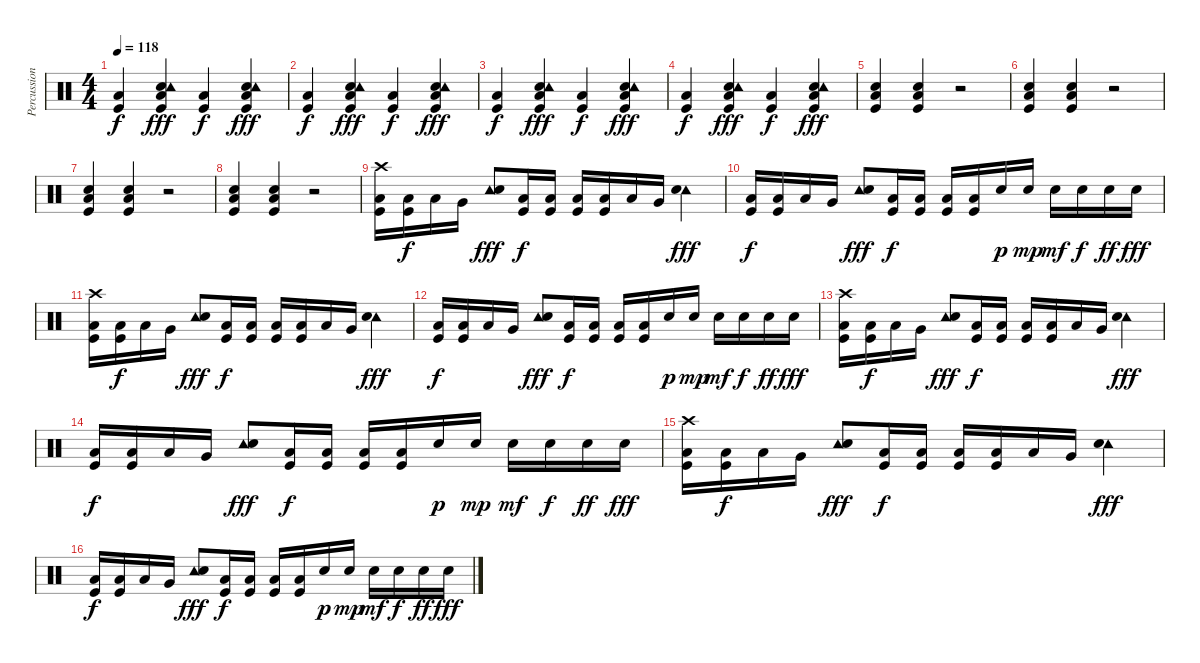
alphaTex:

\track ("Percussion" "Percussion") {instrument percussion}
\staff {score}
\articulation defaults
\ts (4 4)
\tempo 118
\clef neutral
\ks c
("Kick (hit)" "Low Floor Tom (hit)").4{dy f} ("Snare (hit) 2" "Tambourine (hit)" "Kick (hit)" "Low Floor Tom (hit)").4{dy fff} ("Kick (hit)" "Low Floor Tom (hit)").4{dy f} ("Snare (hit) 2" "Tambourine (hit)" "Kick (hit)" "Low Floor Tom (hit)").4{dy fff} |
("Kick (hit)" "Low Floor Tom (hit)").4{dy f} ("Snare (hit) 2" "Tambourine (hit)" "Kick (hit)" "Low Floor Tom (hit)").4{dy fff} ("Kick (hit)" "Low Floor Tom (hit)").4{dy f} ("Snare (hit) 2" "Tambourine (hit)" "Kick (hit)" "Low Floor Tom (hit)").4{dy fff} |
("Kick (hit)" "Low Floor Tom (hit)").4{dy f} ("Snare (hit) 2" "Tambourine (hit)" "Kick (hit)" "Low Floor Tom (hit)").4{dy fff} ("Kick (hit)" "Low Floor Tom (hit)").4{dy f} ("Snare (hit) 2" "Tambourine (hit)" "Kick (hit)" "Low Floor Tom (hit)").4{dy fff} |
("Kick (hit)" "Low Floor Tom (hit)").4{dy f} ("Snare (hit) 2" "Tambourine (hit)" "Kick (hit)" "Low Floor Tom (hit)").4{dy fff} ("Kick (hit)" "Low Floor Tom (hit)").4{dy f} ("Snare (hit) 2" "Tambourine (hit)" "Kick (hit)" "Low Floor Tom (hit)").4{dy fff} |
("Low Floor Tom (hit)" "Kick (hit)" "Snare (hit) 2").4 ("Low Floor Tom (hit)" "Kick (hit)" "Snare (hit) 2").4 r.2 |
("Low Floor Tom (hit)" "Kick (hit)" "Snare (hit) 2").4 ("Low Floor Tom (hit)" "Kick (hit)" "Snare (hit) 2").4 r.2 |
("Low Floor Tom (hit)" "Kick (hit)" "Snare (hit) 2").4 ("Low Floor Tom (hit)" "Kick (hit)" "Snare (hit) 2").4 r.2 |
("Low Floor Tom (hit)" "Kick (hit)" "Snare (hit) 2").4 ("Low Floor Tom (hit)" "Kick (hit)" "Snare (hit) 2").4 r.2 |
("Crash high (hit)" "Low Floor Tom (hit)" "Kick (hit)").16 ("Low Floor Tom (hit)" "Kick (hit)").16{dy f} "Low Tom (hit)".16 "Very Low Tom (hit)".16 ("Tambourine (hit)" "Snare (hit) 2").8{dy fff} ("Low Floor Tom (hit)" "Kick (hit)").16{dy f} ("Low Floor Tom (hit)" "Kick (hit)").16 ("Low Floor Tom (hit)" "Kick (hit)").16 ("Low Floor Tom (hit)" "Kick (hit)").16 "Low Tom (hit)".16 "Very Low Tom (hit)".16 ("Tambourine (hit)" "Snare (hit) 2").4{dy fff} |
("Low Floor Tom (hit)" "Kick (hit)").16{dy f} ("Low Floor Tom (hit)" "Kick (hit)").16 "Low Tom (hit)".16 "Very Low Tom (hit)".16 ("Tambourine (hit)" "Snare (hit) 2").8{dy fff} ("Low Floor Tom (hit)" "Kick (hit)").16{dy f} ("Low Floor Tom (hit)" "Kick (hit)").16 ("Low Floor Tom (hit)" "Kick (hit)").16 ("Low Floor Tom (hit)" "Kick (hit)").16 "Snare (hit) 2".16{dy p} "Snare (hit) 2".16{dy mp} "Snare (hit) 2".16{dy mf} "Snare (hit) 2".16{dy f} "Snare (hit) 2".16{dy ff} "Snare (hit) 2".16{dy fff} |
("Crash high (hit)" "Low Floor Tom (hit)" "Kick (hit)").16 ("Low Floor Tom (hit)" "Kick (hit)").16{dy f} "Low Tom (hit)".16 "Very Low Tom (hit)".16 ("Tambourine (hit)" "Snare (hit) 2").8{dy fff} ("Low Floor Tom (hit)" "Kick (hit)").16{dy f} ("Low Floor Tom (hit)" "Kick (hit)").16 ("Low Floor Tom (hit)" "Kick (hit)").16 ("Low Floor Tom (hit)" "Kick (hit)").16 "Low Tom (hit)".16 "Very Low Tom (hit)".16 ("Tambourine (hit)" "Snare (hit) 2").4{dy fff} |
("Low Floor Tom (hit)" "Kick (hit)").16{dy f} ("Low Floor Tom (hit)" "Kick (hit)").16 "Low Tom (hit)".16 "Very Low Tom (hit)".16 ("Tambourine (hit)" "Snare (hit) 2").8{dy fff} ("Low Floor Tom (hit)" "Kick (hit)").16{dy f} ("Low Floor Tom (hit)" "Kick (hit)").16 ("Low Floor Tom (hit)" "Kick (hit)").16 ("Low Floor Tom (hit)" "Kick (hit)").16 "Snare (hit) 2".16{dy p} "Snare (hit) 2".16{dy mp} "Snare (hit) 2".16{dy mf} "Snare (hit) 2".16{dy f} "Snare (hit) 2".16{dy ff} "Snare (hit) 2".16{dy fff} |
("Crash high (hit)" "Low Floor Tom (hit)" "Kick (hit)").16 ("Low Floor Tom (hit)" "Kick (hit)").16{dy f} "Low Tom (hit)".16 "Very Low Tom (hit)".16 ("Tambourine (hit)" "Snare (hit) 2").8{dy fff} ("Low Floor Tom (hit)" "Kick (hit)").16{dy f} ("Low Floor Tom (hit)" "Kick (hit)").16 ("Low Floor Tom (hit)" "Kick (hit)").16 ("Low Floor Tom (hit)" "Kick (hit)").16 "Low Tom (hit)".16 "Very Low Tom (hit)".16 ("Tambourine (hit)" "Snare (hit) 2").4{dy fff} |
("Low Floor Tom (hit)" "Kick (hit)").16{dy f} ("Low Floor Tom (hit)" "Kick (hit)").16 "Low Tom (hit)".16 "Very Low Tom (hit)".16 ("Tambourine (hit)" "Snare (hit) 2").8{dy fff} ("Low Floor Tom (hit)" "Kick (hit)").16{dy f} ("Low Floor Tom (hit)" "Kick (hit)").16 ("Low Floor Tom (hit)" "Kick (hit)").16 ("Low Floor Tom (hit)" "Kick (hit)").16 "Snare (hit) 2".16{dy p} "Snare (hit) 2".16{dy mp} "Snare (hit) 2".16{dy mf} "Snare (hit) 2".16{dy f} "Snare (hit) 2".16{dy ff} "Snare (hit) 2".16{dy fff} |
("Crash high (hit)" "Low Floor Tom (hit)" "Kick (hit)").16 ("Low Floor Tom (hit)" "Kick (hit)").16{dy f} "Low Tom (hit)".16 "Very Low Tom (hit)".16 ("Tambourine (hit)" "Snare (hit) 2").8{dy fff} ("Low Floor Tom (hit)" "Kick (hit)").16{dy f} ("Low Floor Tom (hit)" "Kick (hit)").16 ("Low Floor Tom (hit)" "Kick (hit)").16 ("Low Floor Tom (hit)" "Kick (hit)").16 "Low Tom (hit)".16 "Very Low Tom (hit)".16 ("Tambourine (hit)" "Snare (hit) 2").4{dy fff} |
("Low Floor Tom (hit)" "Kick (hit)").16{dy f} ("Low Floor Tom (hit)" "Kick (hit)").16 "Low Tom (hit)".16 "Very Low Tom (hit)".16 ("Tambourine (hit)" "Snare (hit) 2").8{dy fff} ("Low Floor Tom (hit)" "Kick (hit)").16{dy f} ("Low Floor Tom (hit)" "Kick (hit)").16 ("Low Floor Tom (hit)" "Kick (hit)").16 ("Low Floor Tom (hit)" "Kick (hit)").16 "Snare (hit) 2".16{dy p} "Snare (hit) 2".16{dy mp} "Snare (hit) 2".16{dy mf} "Snare (hit) 2".16{dy f} "Snare (hit) 2".16{dy ff} "Snare (hit) 2".16{dy fff}
